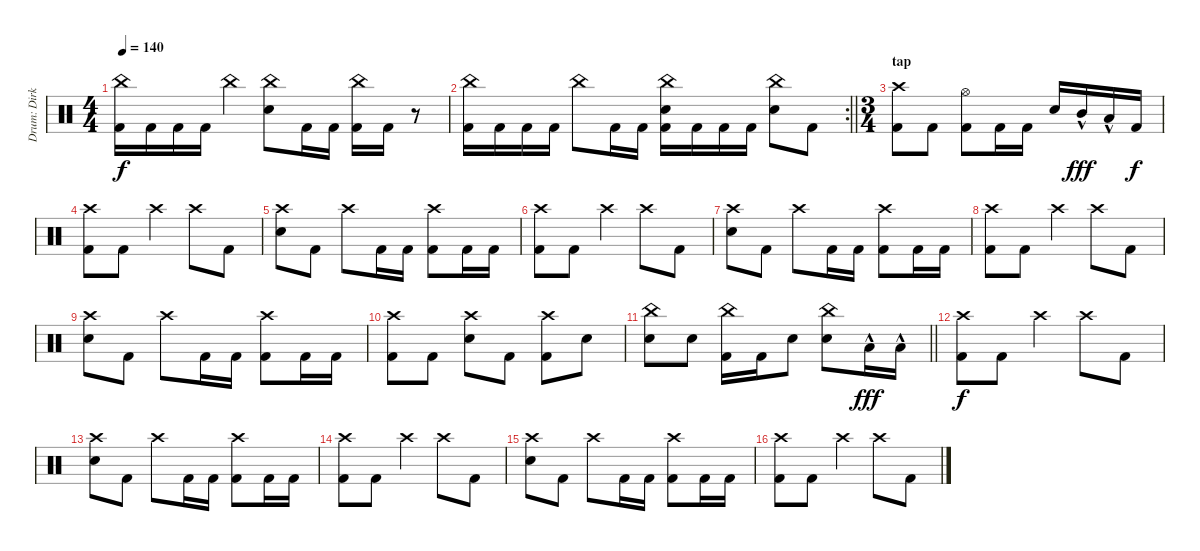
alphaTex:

\track ("Drum: Dirk" "Drum: Dirk") {instrument percussion}
\staff {score}
\articulation defaults
\ts (4 4)
\tempo 140
\clef neutral
\ks c
("China (hit)" "Kick (hit) 2").16{dy f} "Kick (hit) 2".16 "Kick (hit) 2".16 "Kick (hit) 2".16 "China (hit)".4 ("China (hit)" "Electric Snare (hit)").8 "Kick (hit) 2".16 "Kick (hit) 2".16 ("China (hit)" "Kick (hit) 2").16 "Kick (hit) 2".16 r.8 |
\rc 2
\barLineRight lightlight
("China (hit)" "Kick (hit) 2").16 "Kick (hit) 2".16 "Kick (hit) 2".16 "Kick (hit) 2".16 "China (hit)".8 "Kick (hit) 2".16 "Kick (hit) 2".16 ("China (hit)" "Electric Snare (hit)" "Kick (hit) 2").16 "Kick (hit) 2".16 "Kick (hit) 2".16 "Kick (hit) 2".16 ("China (hit)" "Electric Snare (hit)").8 "Kick (hit) 2".8 |
\ts (3 4)
\section ("" "tap")
("Crash high (hit)" "Kick (hit) 2").8 "Kick (hit) 2".8 ("Hi-Hat (open)" "Kick (hit) 2").8 "Kick (hit) 2".16 "Kick (hit) 2".16 "Electric Snare (hit)".16 "Mid Tom (hit)"{hac}.16{dy fff} "Low Tom (hit)"{hac}.16 "Kick (hit) 2".16{dy f} |
("Crash high (hit)" "Kick (hit) 2").8 "Kick (hit) 2".8 "Crash high (hit)".4 "Crash high (hit)".8 "Kick (hit) 2".8 |
("Crash high (hit)" "Electric Snare (hit)").8 "Kick (hit) 2".8 "Crash high (hit)".8 "Kick (hit) 2".16 "Kick (hit) 2".16 ("Crash high (hit)" "Kick (hit) 2").8 "Kick (hit) 2".16 "Kick (hit) 2".16 |
("Crash high (hit)" "Kick (hit) 2").8 "Kick (hit) 2".8 "Crash high (hit)".4 "Crash high (hit)".8 "Kick (hit) 2".8 |
("Crash high (hit)" "Electric Snare (hit)").8 "Kick (hit) 2".8 "Crash high (hit)".8 "Kick (hit) 2".16 "Kick (hit) 2".16 ("Crash high (hit)" "Kick (hit) 2").8 "Kick (hit) 2".16 "Kick (hit) 2".16 |
("Crash high (hit)" "Kick (hit) 2").8 "Kick (hit) 2".8 "Crash high (hit)".4 "Crash high (hit)".8 "Kick (hit) 2".8 |
("Crash high (hit)" "Electric Snare (hit)").8 "Kick (hit) 2".8 "Crash high (hit)".8 "Kick (hit) 2".16 "Kick (hit) 2".16 ("Crash high (hit)" "Kick (hit) 2").8 "Kick (hit) 2".16 "Kick (hit) 2".16 |
("Crash high (hit)" "Kick (hit) 2").8 "Kick (hit) 2".8 ("Crash high (hit)" "Electric Snare (hit)").8 "Kick (hit) 2".8 ("Crash high (hit)" "Kick (hit) 2").8 "Electric Snare (hit)".8 |
\barLineRight lightlight
("China (hit)" "Electric Snare (hit)").8 "Electric Snare (hit)".8 ("China (hit)" "Kick (hit) 2").16 "Kick (hit) 2".16 "Electric Snare (hit)".8 ("China (hit)" "Electric Snare (hit)").8 "Low Tom (hit)"{hac}.16{dy fff} "Low Tom (hit)"{hac}.16 |
("Crash high (hit)" "Kick (hit) 2").8{dy f} "Kick (hit) 2".8 "Crash high (hit)".4 "Crash high (hit)".8 "Kick (hit) 2".8 |
("Crash high (hit)" "Electric Snare (hit)").8 "Kick (hit) 2".8 "Crash high (hit)".8 "Kick (hit) 2".16 "Kick (hit) 2".16 ("Crash high (hit)" "Kick (hit) 2").8 "Kick (hit) 2".16 "Kick (hit) 2".16 |
("Crash high (hit)" "Kick (hit) 2").8 "Kick (hit) 2".8 "Crash high (hit)".4 "Crash high (hit)".8 "Kick (hit) 2".8 |
("Crash high (hit)" "Electric Snare (hit)").8 "Kick (hit) 2".8 "Crash high (hit)".8 "Kick (hit) 2".16 "Kick (hit) 2".16 ("Crash high (hit)" "Kick (hit) 2").8 "Kick (hit) 2".16 "Kick (hit) 2".16 |
("Crash high (hit)" "Kick (hit) 2").8 "Kick (hit) 2".8 "Crash high (hit)".4 "Crash high (hit)".8 "Kick (hit) 2".8
